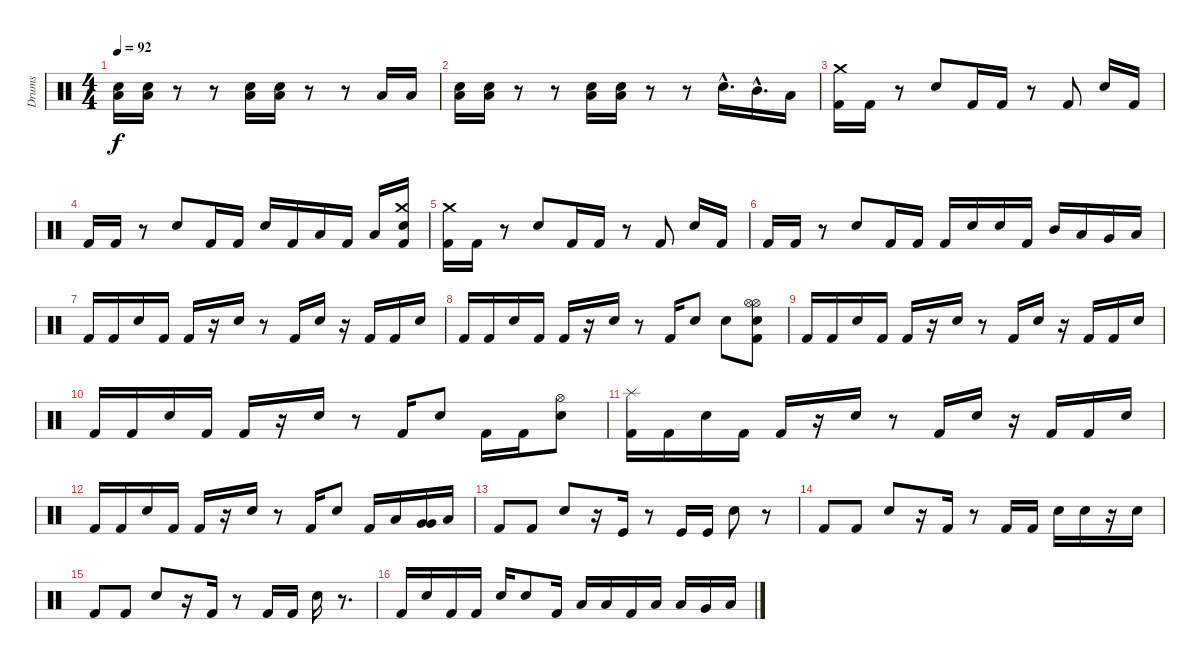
\track ("Drums" "Drums") {instrument percussion}
\staff {score}
\articulation defaults
\ts (4 4)
\tempo 92
\clef neutral
\ks c
("Low Floor Tom (hit)" "Snare (hit) 2").16{dy f} ("Low Floor Tom (hit)" "Snare (hit) 2").16 r.8 r.8 ("Low Floor Tom (hit)" "Snare (hit) 2").16 ("Low Floor Tom (hit)" "Snare (hit) 2").16 r.8 r.8 "Low Tom (hit)".16 "Low Floor Tom (hit)".16 |
("Low Floor Tom (hit)" "Snare (hit) 2").16 ("Low Floor Tom (hit)" "Snare (hit) 2").16 r.8 r.8 ("Low Floor Tom (hit)" "Snare (hit) 2").16 ("Low Floor Tom (hit)" "Snare (hit) 2").16 r.8 r.8 "Snare (hit) 2"{hac}.16{d} "Mid Tom (hit)"{hac}.16{d} "Low Tom (hit)".16 |
("Crash medium (hit)" "Kick (hit) 2").16 "Kick (hit) 2".16 r.8 "Snare (hit) 2".8 "Kick (hit) 2".16 "Kick (hit) 2".16 r.8 "Kick (hit) 2".8 "Snare (hit) 2".16 "Kick (hit) 2".16 |
"Kick (hit) 2".16 "Kick (hit) 2".16 r.8 "Snare (hit) 2".8 "Kick (hit) 2".16 "Kick (hit) 2".16 "Snare (hit) 2".16 "Kick (hit) 2".16 "Low Tom (hit)".16 "Kick (hit) 2".16 "Low Floor Tom (hit)".16 ("Crash medium (hit)" "Kick (hit) 2" "Snare (hit) 2").16 |
("Crash medium (hit)" "Kick (hit) 2").16 "Kick (hit) 2".16 r.8 "Snare (hit) 2".8 "Kick (hit) 2".16 "Kick (hit) 2".16 r.8 "Kick (hit) 2".8 "Snare (hit) 2".16 "Kick (hit) 2".16 |
"Kick (hit) 2".16 "Kick (hit) 2".16 r.8 "Snare (hit) 2".8 "Kick (hit) 2".16 "Kick (hit) 2".16 "Kick (hit) 2".16 "Snare (hit) 2".16 "Snare (hit) 2".16 "Kick (hit) 2".16 "Mid Tom (hit)".16 "Low Tom (hit)".16 "Very Low Tom (hit)".16 "Low Floor Tom (hit)".16 |
"Kick (hit) 2".16 "Kick (hit) 2".16 "Snare (hit) 2".16 "Kick (hit) 2".16 "Kick (hit) 2".16 r.16 "Snare (hit) 2".16 r.8 "Kick (hit) 2".16 "Snare (hit) 2".16 r.16 "Kick (hit) 2".16 "Kick (hit) 2".16 "Snare (hit) 2".16 |
"Kick (hit) 2".16 "Kick (hit) 2".16 "Snare (hit) 2".16 "Kick (hit) 2".16 "Kick (hit) 2".16 r.16 "Snare (hit) 2".16 r.8 "Kick (hit) 2".16 "Snare (hit) 2".8 "Snare (hit) 2".8 ("Hi-Hat (open)" "Hi-Hat (open)" "Kick (hit) 2" "Snare (hit) 2").8 |
"Kick (hit) 2".16 "Kick (hit) 2".16 "Snare (hit) 2".16 "Kick (hit) 2".16 "Kick (hit) 2".16 r.16 "Snare (hit) 2".16 r.8 "Kick (hit) 2".16 "Snare (hit) 2".16 r.16 "Kick (hit) 2".16 "Kick (hit) 2".16 "Snare (hit) 2".16 |
"Kick (hit) 2".16 "Kick (hit) 2".16 "Snare (hit) 2".16 "Kick (hit) 2".16 "Kick (hit) 2".16 r.16 "Snare (hit) 2".16 r.8 "Kick (hit) 2".16 "Snare (hit) 2".8 "Kick (hit) 2".16 "Kick (hit) 2".16 ("Snare (hit) 2" "Hi-Hat (open)").8 |
("Splash (hit)" "Kick (hit) 2").16 "Kick (hit) 2".16 "Snare (hit) 2".16 "Kick (hit) 2".16 "Kick (hit) 2".16 r.16 "Snare (hit) 2".16 r.8 "Kick (hit) 2".16 "Snare (hit) 2".16 r.16 "Kick (hit) 2".16 "Kick (hit) 2".16 "Snare (hit) 2".16 |
"Kick (hit) 2".16 "Kick (hit) 2".16 "Snare (hit) 2".16 "Kick (hit) 2".16 "Kick (hit) 2".16 r.16 "Snare (hit) 2".16 r.8 "Kick (hit) 2".16 "Snare (hit) 2".8 "Kick (hit) 2".16 "Low Tom (hit)".16 ("Very Low Tom (hit)" "Very Low Tom (hit)").16 "Low Floor Tom (hit)".16 |
"Kick (hit) 2".8 "Kick (hit) 2".8 "Snare (hit) 2".8 r.16 "Kick (hit)".16 r.8 "Kick (hit)".16 "Kick (hit)".16 "Snare (hit) 2".8 r.8 |
"Kick (hit) 2".8 "Kick (hit) 2".8 "Snare (hit) 2".8 r.16 "Kick (hit) 2".16 r.8 "Kick (hit) 2".16 "Kick (hit) 2".16 "Snare (hit) 2".16 "Snare (hit) 2".16 r.16 "Snare (hit) 2".16 |
"Kick (hit) 2".8 "Kick (hit) 2".8 "Snare (hit) 2".8 r.16 "Kick (hit) 2".16 r.8 "Kick (hit) 2".16 "Kick (hit) 2".16 "Snare (hit) 2".16 r.8{d} |
"Kick (hit) 2".16 "Snare (hit) 2".16 "Kick (hit) 2".16 "Kick (hit) 2".16 "Snare (hit) 2".16 "Snare (hit) 2".8 "Kick (hit) 2".16 "Low Floor Tom (hit)".16 "Low Floor Tom (hit)".16 "Kick (hit) 2".16 "Low Tom (hit)".16 "Low Tom (hit)".16 "Very Low Tom (hit)".16 "Low Floor Tom (hit)".16
